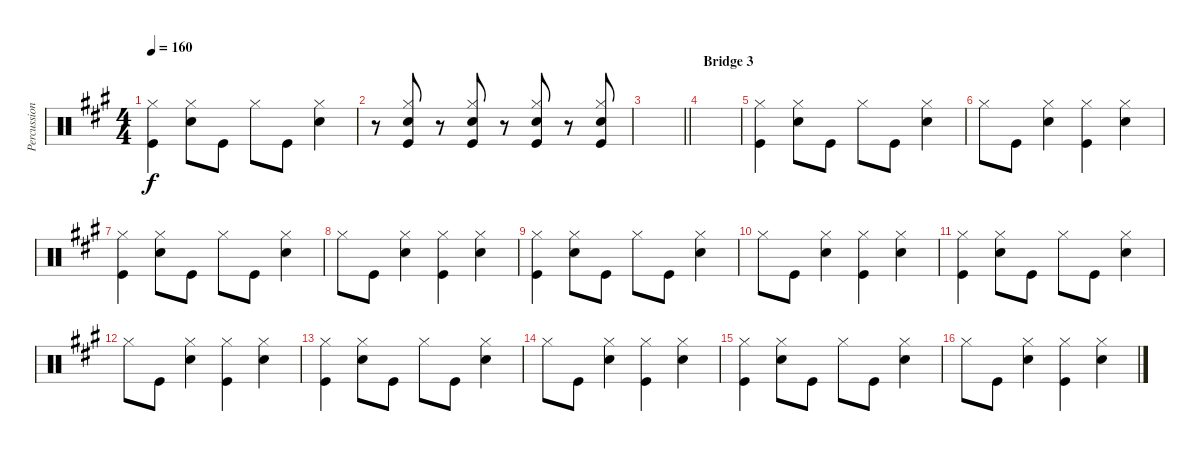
\track ("Percussion" "Percussion") {instrument percussion}
\staff {score}
\articulation defaults
\ts (4 4)
\tempo 160
\clef neutral
\ks a
("Kick (hit)" "Hi-Hat (closed)").4{dy f} ("Snare (hit) 2" "Hi-Hat (closed)").8 "Kick (hit)".8 "Hi-Hat (closed)".8 "Kick (hit)".8 ("Snare (hit) 2" "Hi-Hat (closed)").4 |
r.8 ("Kick (hit)" "Snare (hit) 2" "Hi-Hat (closed)").8 r.8 ("Kick (hit)" "Snare (hit) 2" "Hi-Hat (closed)").8 r.8 ("Hi-Hat (closed)" "Kick (hit)" "Snare (hit) 2").8 r.8 ("Hi-Hat (closed)" "Kick (hit)" "Snare (hit) 2").8 |
\barLineRight lightlight
|
\section ("" "Bridge 3")
|
("Kick (hit)" "Hi-Hat (closed)").4 ("Snare (hit) 2" "Hi-Hat (closed)").8 "Kick (hit)".8 "Hi-Hat (closed)".8 "Kick (hit)".8 ("Snare (hit) 2" "Hi-Hat (closed)").4 |
"Hi-Hat (closed)".8 "Kick (hit)".8 ("Snare (hit) 2" "Hi-Hat (closed)").4 ("Kick (hit)" "Hi-Hat (closed)").4 ("Snare (hit) 2" "Hi-Hat (closed)").4 |
("Hi-Hat (closed)" "Kick (hit)").4 ("Snare (hit) 2" "Hi-Hat (closed)").8 "Kick (hit)".8 "Hi-Hat (closed)".8 "Kick (hit)".8 ("Snare (hit) 2" "Hi-Hat (closed)").4 |
"Hi-Hat (closed)".8 "Kick (hit)".8 ("Snare (hit) 2" "Hi-Hat (closed)").4 ("Kick (hit)" "Hi-Hat (closed)").4 ("Snare (hit) 2" "Hi-Hat (closed)").4 |
("Hi-Hat (closed)" "Kick (hit)").4 ("Snare (hit) 2" "Hi-Hat (closed)").8 "Kick (hit)".8 "Hi-Hat (closed)".8 "Kick (hit)".8 ("Snare (hit) 2" "Hi-Hat (closed)").4 |
"Hi-Hat (closed)".8 "Kick (hit)".8 ("Snare (hit) 2" "Hi-Hat (closed)").4 ("Kick (hit)" "Hi-Hat (closed)").4 ("Snare (hit) 2" "Hi-Hat (closed)").4 |
("Hi-Hat (closed)" "Kick (hit)").4 ("Snare (hit) 2" "Hi-Hat (closed)").8 "Kick (hit)".8 "Hi-Hat (closed)".8 "Kick (hit)".8 ("Snare (hit) 2" "Hi-Hat (closed)").4 |
"Hi-Hat (closed)".8 "Kick (hit)".8 ("Snare (hit) 2" "Hi-Hat (closed)").4 ("Kick (hit)" "Hi-Hat (closed)").4 ("Snare (hit) 2" "Hi-Hat (closed)").4 |
("Hi-Hat (closed)" "Kick (hit)").4 ("Snare (hit) 2" "Hi-Hat (closed)").8 "Kick (hit)".8 "Hi-Hat (closed)".8 "Kick (hit)".8 ("Snare (hit) 2" "Hi-Hat (closed)").4 |
"Hi-Hat (closed)".8 "Kick (hit)".8 ("Snare (hit) 2" "Hi-Hat (closed)").4 ("Kick (hit)" "Hi-Hat (closed)").4 ("Snare (hit) 2" "Hi-Hat (closed)").4 |
("Kick (hit)" "Hi-Hat (closed)").4 ("Snare (hit) 2" "Hi-Hat (closed)").8 "Kick (hit)".8 "Hi-Hat (closed)".8 "Kick (hit)".8 ("Snare (hit) 2" "Hi-Hat (closed)").4 |
"Hi-Hat (closed)".8 "Kick (hit)".8 ("Snare (hit) 2" "Hi-Hat (closed)").4 ("Kick (hit)" "Hi-Hat (closed)").4 ("Snare (hit) 2" "Hi-Hat (closed)").4
